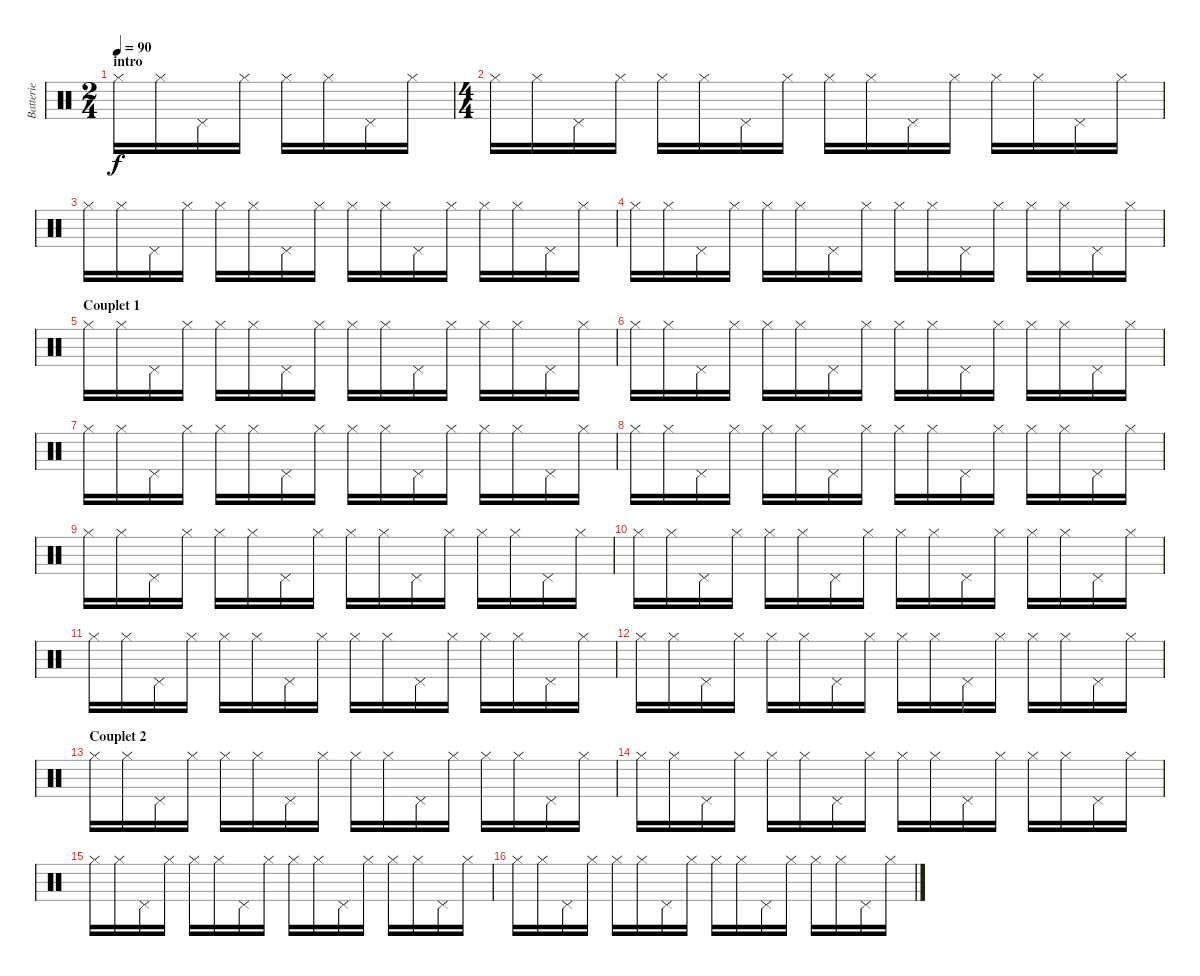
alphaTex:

\track ("Batterie" "Batterie") {instrument percussion}
\staff {score}
\articulation defaults
\ts (2 4)
\section ("" "intro")
\tempo 90
\clef neutral
\ks c "Hi-Hat (closed)".16{dy f} "Hi-Hat (closed)".16 "Pedal Hi-Hat (hit)".16 "Hi-Hat (closed)".16 "Hi-Hat (closed)".16 "Hi-Hat (closed)".16 "Pedal Hi-Hat (hit)".16 "Hi-Hat (closed)".16
|
\ts (4 4)
"Hi-Hat (closed)".16 "Hi-Hat (closed)".16 "Pedal Hi-Hat (hit)".16 "Hi-Hat (closed)".16 "Hi-Hat (closed)".16 "Hi-Hat (closed)".16 "Pedal Hi-Hat (hit)".16 "Hi-Hat (closed)".16 "Hi-Hat (closed)".16 "Hi-Hat (closed)".16 "Pedal Hi-Hat (hit)".16 "Hi-Hat (closed)".16 "Hi-Hat (closed)".16 "Hi-Hat (closed)".16 "Pedal Hi-Hat (hit)".16 "Hi-Hat (closed)".16 |
"Hi-Hat (closed)".16 "Hi-Hat (closed)".16 "Pedal Hi-Hat (hit)".16 "Hi-Hat (closed)".16 "Hi-Hat (closed)".16 "Hi-Hat (closed)".16 "Pedal Hi-Hat (hit)".16 "Hi-Hat (closed)".16 "Hi-Hat (closed)".16 "Hi-Hat (closed)".16 "Pedal Hi-Hat (hit)".16 "Hi-Hat (closed)".16 "Hi-Hat (closed)".16 "Hi-Hat (closed)".16 "Pedal Hi-Hat (hit)".16 "Hi-Hat (closed)".16 |
"Hi-Hat (closed)".16 "Hi-Hat (closed)".16 "Pedal Hi-Hat (hit)".16 "Hi-Hat (closed)".16 "Hi-Hat (closed)".16 "Hi-Hat (closed)".16 "Pedal Hi-Hat (hit)".16 "Hi-Hat (closed)".16 "Hi-Hat (closed)".16 "Hi-Hat (closed)".16 "Pedal Hi-Hat (hit)".16 "Hi-Hat (closed)".16 "Hi-Hat (closed)".16 "Hi-Hat (closed)".16 "Pedal Hi-Hat (hit)".16 "Hi-Hat (closed)".16 |
\section ("" "Couplet 1")
"Hi-Hat (closed)".16 "Hi-Hat (closed)".16 "Pedal Hi-Hat (hit)".16 "Hi-Hat (closed)".16 "Hi-Hat (closed)".16 "Hi-Hat (closed)".16 "Pedal Hi-Hat (hit)".16 "Hi-Hat (closed)".16 "Hi-Hat (closed)".16 "Hi-Hat (closed)".16 "Pedal Hi-Hat (hit)".16 "Hi-Hat (closed)".16 "Hi-Hat (closed)".16 "Hi-Hat (closed)".16 "Pedal Hi-Hat (hit)".16 "Hi-Hat (closed)".16 |
"Hi-Hat (closed)".16 "Hi-Hat (closed)".16 "Pedal Hi-Hat (hit)".16 "Hi-Hat (closed)".16 "Hi-Hat (closed)".16 "Hi-Hat (closed)".16 "Pedal Hi-Hat (hit)".16 "Hi-Hat (closed)".16 "Hi-Hat (closed)".16 "Hi-Hat (closed)".16 "Pedal Hi-Hat (hit)".16 "Hi-Hat (closed)".16 "Hi-Hat (closed)".16 "Hi-Hat (closed)".16 "Pedal Hi-Hat (hit)".16 "Hi-Hat (closed)".16 |
"Hi-Hat (closed)".16 "Hi-Hat (closed)".16 "Pedal Hi-Hat (hit)".16 "Hi-Hat (closed)".16 "Hi-Hat (closed)".16 "Hi-Hat (closed)".16 "Pedal Hi-Hat (hit)".16 "Hi-Hat (closed)".16 "Hi-Hat (closed)".16 "Hi-Hat (closed)".16 "Pedal Hi-Hat (hit)".16 "Hi-Hat (closed)".16 "Hi-Hat (closed)".16 "Hi-Hat (closed)".16 "Pedal Hi-Hat (hit)".16 "Hi-Hat (closed)".16 |
"Hi-Hat (closed)".16 "Hi-Hat (closed)".16 "Pedal Hi-Hat (hit)".16 "Hi-Hat (closed)".16 "Hi-Hat (closed)".16 "Hi-Hat (closed)".16 "Pedal Hi-Hat (hit)".16 "Hi-Hat (closed)".16 "Hi-Hat (closed)".16 "Hi-Hat (closed)".16 "Pedal Hi-Hat (hit)".16 "Hi-Hat (closed)".16 "Hi-Hat (closed)".16 "Hi-Hat (closed)".16 "Pedal Hi-Hat (hit)".16 "Hi-Hat (closed)".16 |
"Hi-Hat (closed)".16 "Hi-Hat (closed)".16 "Pedal Hi-Hat (hit)".16 "Hi-Hat (closed)".16 "Hi-Hat (closed)".16 "Hi-Hat (closed)".16 "Pedal Hi-Hat (hit)".16 "Hi-Hat (closed)".16 "Hi-Hat (closed)".16 "Hi-Hat (closed)".16 "Pedal Hi-Hat (hit)".16 "Hi-Hat (closed)".16 "Hi-Hat (closed)".16 "Hi-Hat (closed)".16 "Pedal Hi-Hat (hit)".16 "Hi-Hat (closed)".16 |
"Hi-Hat (closed)".16 "Hi-Hat (closed)".16 "Pedal Hi-Hat (hit)".16 "Hi-Hat (closed)".16 "Hi-Hat (closed)".16 "Hi-Hat (closed)".16 "Pedal Hi-Hat (hit)".16 "Hi-Hat (closed)".16 "Hi-Hat (closed)".16 "Hi-Hat (closed)".16 "Pedal Hi-Hat (hit)".16 "Hi-Hat (closed)".16 "Hi-Hat (closed)".16 "Hi-Hat (closed)".16 "Pedal Hi-Hat (hit)".16 "Hi-Hat (closed)".16 |
"Hi-Hat (closed)".16 "Hi-Hat (closed)".16 "Pedal Hi-Hat (hit)".16 "Hi-Hat (closed)".16 "Hi-Hat (closed)".16 "Hi-Hat (closed)".16 "Pedal Hi-Hat (hit)".16 "Hi-Hat (closed)".16 "Hi-Hat (closed)".16 "Hi-Hat (closed)".16 "Pedal Hi-Hat (hit)".16 "Hi-Hat (closed)".16 "Hi-Hat (closed)".16 "Hi-Hat (closed)".16 "Pedal Hi-Hat (hit)".16 "Hi-Hat (closed)".16 |
"Hi-Hat (closed)".16 "Hi-Hat (closed)".16 "Pedal Hi-Hat (hit)".16 "Hi-Hat (closed)".16 "Hi-Hat (closed)".16 "Hi-Hat (closed)".16 "Pedal Hi-Hat (hit)".16 "Hi-Hat (closed)".16 "Hi-Hat (closed)".16 "Hi-Hat (closed)".16 "Pedal Hi-Hat (hit)".16 "Hi-Hat (closed)".16 "Hi-Hat (closed)".16 "Hi-Hat (closed)".16 "Pedal Hi-Hat (hit)".16 "Hi-Hat (closed)".16 |
\section ("" "Couplet 2")
"Hi-Hat (closed)".16 "Hi-Hat (closed)".16 "Pedal Hi-Hat (hit)".16 "Hi-Hat (closed)".16 "Hi-Hat (closed)".16 "Hi-Hat (closed)".16 "Pedal Hi-Hat (hit)".16 "Hi-Hat (closed)".16 "Hi-Hat (closed)".16 "Hi-Hat (closed)".16 "Pedal Hi-Hat (hit)".16 "Hi-Hat (closed)".16 "Hi-Hat (closed)".16 "Hi-Hat (closed)".16 "Pedal Hi-Hat (hit)".16 "Hi-Hat (closed)".16 |
"Hi-Hat (closed)".16 "Hi-Hat (closed)".16 "Pedal Hi-Hat (hit)".16 "Hi-Hat (closed)".16 "Hi-Hat (closed)".16 "Hi-Hat (closed)".16 "Pedal Hi-Hat (hit)".16 "Hi-Hat (closed)".16 "Hi-Hat (closed)".16 "Hi-Hat (closed)".16 "Pedal Hi-Hat (hit)".16 "Hi-Hat (closed)".16 "Hi-Hat (closed)".16 "Hi-Hat (closed)".16 "Pedal Hi-Hat (hit)".16 "Hi-Hat (closed)".16 |
"Hi-Hat (closed)".16 "Hi-Hat (closed)".16 "Pedal Hi-Hat (hit)".16 "Hi-Hat (closed)".16 "Hi-Hat (closed)".16 "Hi-Hat (closed)".16 "Pedal Hi-Hat (hit)".16 "Hi-Hat (closed)".16 "Hi-Hat (closed)".16 "Hi-Hat (closed)".16 "Pedal Hi-Hat (hit)".16 "Hi-Hat (closed)".16 "Hi-Hat (closed)".16 "Hi-Hat (closed)".16 "Pedal Hi-Hat (hit)".16 "Hi-Hat (closed)".16 |
"Hi-Hat (closed)".16 "Hi-Hat (closed)".16 "Pedal Hi-Hat (hit)".16 "Hi-Hat (closed)".16 "Hi-Hat (closed)".16 "Hi-Hat (closed)".16 "Pedal Hi-Hat (hit)".16 "Hi-Hat (closed)".16 "Hi-Hat (closed)".16 "Hi-Hat (closed)".16 "Pedal Hi-Hat (hit)".16 "Hi-Hat (closed)".16 "Hi-Hat (closed)".16 "Hi-Hat (closed)".16 "Pedal Hi-Hat (hit)".16 "Hi-Hat (closed)".16
